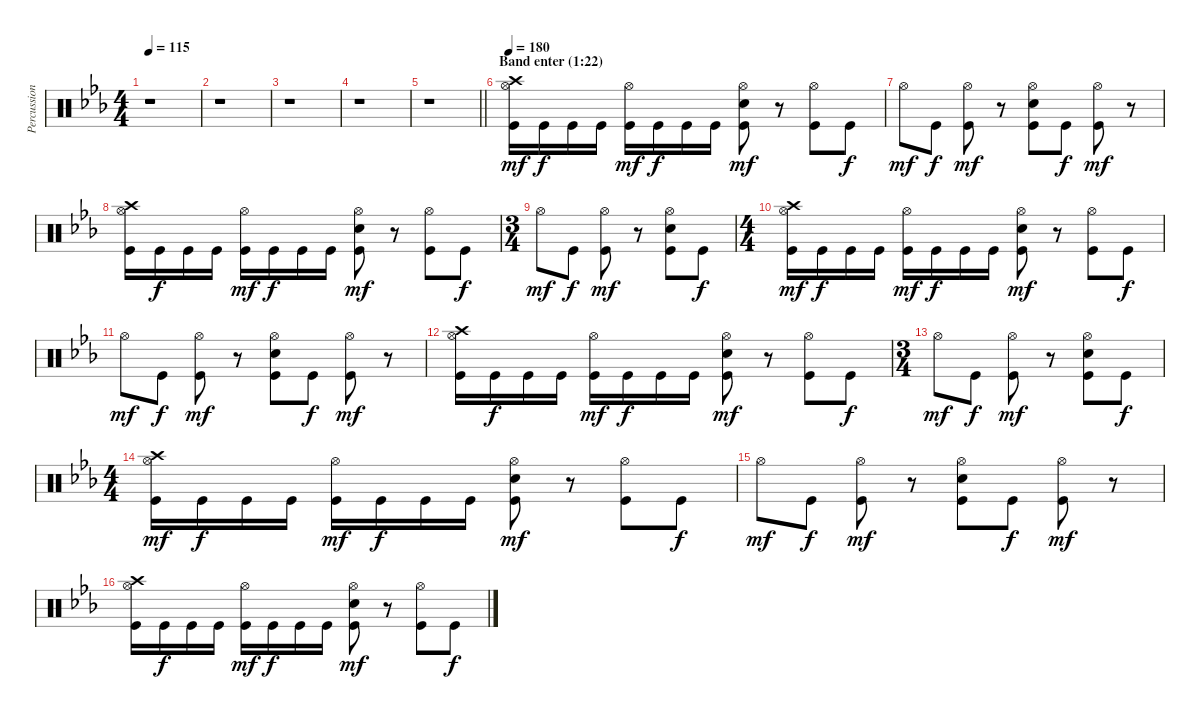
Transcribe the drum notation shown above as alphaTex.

\track ("Percussion" "Percussion") {instrument percussion}
\staff {score}
\articulation defaults
\ts (4 4)
\tempo 115
\clef neutral
\ks cminor
r.1{dy mf} |
r.1 |
r.1 |
r.1 |
\barLineRight lightlight
r.1 |
\section ("" "Band enter (1:22)")
\tempo 180
("Crash high (hit)" "Hi-Hat (open)" "Kick (hit)").16{volume 13 balance 8} "Kick (hit)".16{dy f} "Kick (hit)".16 "Kick (hit)".16 ("Hi-Hat (open)" "Kick (hit)").16{dy mf} "Kick (hit)".16{dy f} "Kick (hit)".16 "Kick (hit)".16 ("Hi-Hat (open)" "Snare (hit) 2" "Kick (hit)").8{dy mf} r.8 ("Hi-Hat (open)" "Kick (hit)").8 "Kick (hit)".8{dy f} |
"Hi-Hat (open)".8{dy mf} "Kick (hit)".8{dy f} ("Hi-Hat (open)" "Kick (hit)").8{dy mf} r.8 ("Hi-Hat (open)" "Snare (hit) 2" "Kick (hit)").8 "Kick (hit)".8{dy f} ("Hi-Hat (open)" "Kick (hit)").8{dy mf} r.8 |
("Crash high (hit)" "Hi-Hat (open)" "Kick (hit)").16 "Kick (hit)".16{dy f} "Kick (hit)".16 "Kick (hit)".16 ("Hi-Hat (open)" "Kick (hit)").16{dy mf} "Kick (hit)".16{dy f} "Kick (hit)".16 "Kick (hit)".16 ("Hi-Hat (open)" "Snare (hit) 2" "Kick (hit)").8{dy mf} r.8 ("Hi-Hat (open)" "Kick (hit)").8 "Kick (hit)".8{dy f} |
\ts (3 4)
"Hi-Hat (open)".8{dy mf} "Kick (hit)".8{dy f} ("Hi-Hat (open)" "Kick (hit)").8{dy mf} r.8 ("Hi-Hat (open)" "Snare (hit) 2" "Kick (hit)").8 "Kick (hit)".8{dy f} |
\ts (4 4)
("Crash high (hit)" "Hi-Hat (open)" "Kick (hit)").16{dy mf} "Kick (hit)".16{dy f} "Kick (hit)".16 "Kick (hit)".16 ("Hi-Hat (open)" "Kick (hit)").16{dy mf} "Kick (hit)".16{dy f} "Kick (hit)".16 "Kick (hit)".16 ("Hi-Hat (open)" "Snare (hit) 2" "Kick (hit)").8{dy mf} r.8 ("Hi-Hat (open)" "Kick (hit)").8 "Kick (hit)".8{dy f} |
"Hi-Hat (open)".8{dy mf} "Kick (hit)".8{dy f} ("Hi-Hat (open)" "Kick (hit)").8{dy mf} r.8 ("Hi-Hat (open)" "Snare (hit) 2" "Kick (hit)").8 "Kick (hit)".8{dy f} ("Hi-Hat (open)" "Kick (hit)").8{dy mf} r.8 |
("Crash high (hit)" "Hi-Hat (open)" "Kick (hit)").16 "Kick (hit)".16{dy f} "Kick (hit)".16 "Kick (hit)".16 ("Hi-Hat (open)" "Kick (hit)").16{dy mf} "Kick (hit)".16{dy f} "Kick (hit)".16 "Kick (hit)".16 ("Hi-Hat (open)" "Snare (hit) 2" "Kick (hit)").8{dy mf} r.8 ("Hi-Hat (open)" "Kick (hit)").8 "Kick (hit)".8{dy f} |
\ts (3 4)
"Hi-Hat (open)".8{dy mf} "Kick (hit)".8{dy f} ("Hi-Hat (open)" "Kick (hit)").8{dy mf} r.8 ("Hi-Hat (open)" "Snare (hit) 2" "Kick (hit)").8 "Kick (hit)".8{dy f} |
\ts (4 4)
("Crash high (hit)" "Hi-Hat (open)" "Kick (hit)").16{dy mf} "Kick (hit)".16{dy f} "Kick (hit)".16 "Kick (hit)".16 ("Hi-Hat (open)" "Kick (hit)").16{dy mf} "Kick (hit)".16{dy f} "Kick (hit)".16 "Kick (hit)".16 ("Hi-Hat (open)" "Snare (hit) 2" "Kick (hit)").8{dy mf} r.8 ("Hi-Hat (open)" "Kick (hit)").8 "Kick (hit)".8{dy f} |
"Hi-Hat (open)".8{dy mf} "Kick (hit)".8{dy f} ("Hi-Hat (open)" "Kick (hit)").8{dy mf} r.8 ("Hi-Hat (open)" "Snare (hit) 2" "Kick (hit)").8 "Kick (hit)".8{dy f} ("Hi-Hat (open)" "Kick (hit)").8{dy mf} r.8 |
("Crash high (hit)" "Hi-Hat (open)" "Kick (hit)").16 "Kick (hit)".16{dy f} "Kick (hit)".16 "Kick (hit)".16 ("Hi-Hat (open)" "Kick (hit)").16{dy mf} "Kick (hit)".16{dy f} "Kick (hit)".16 "Kick (hit)".16 ("Hi-Hat (open)" "Snare (hit) 2" "Kick (hit)").8{dy mf} r.8 ("Hi-Hat (open)" "Kick (hit)").8 "Kick (hit)".8{dy f}
